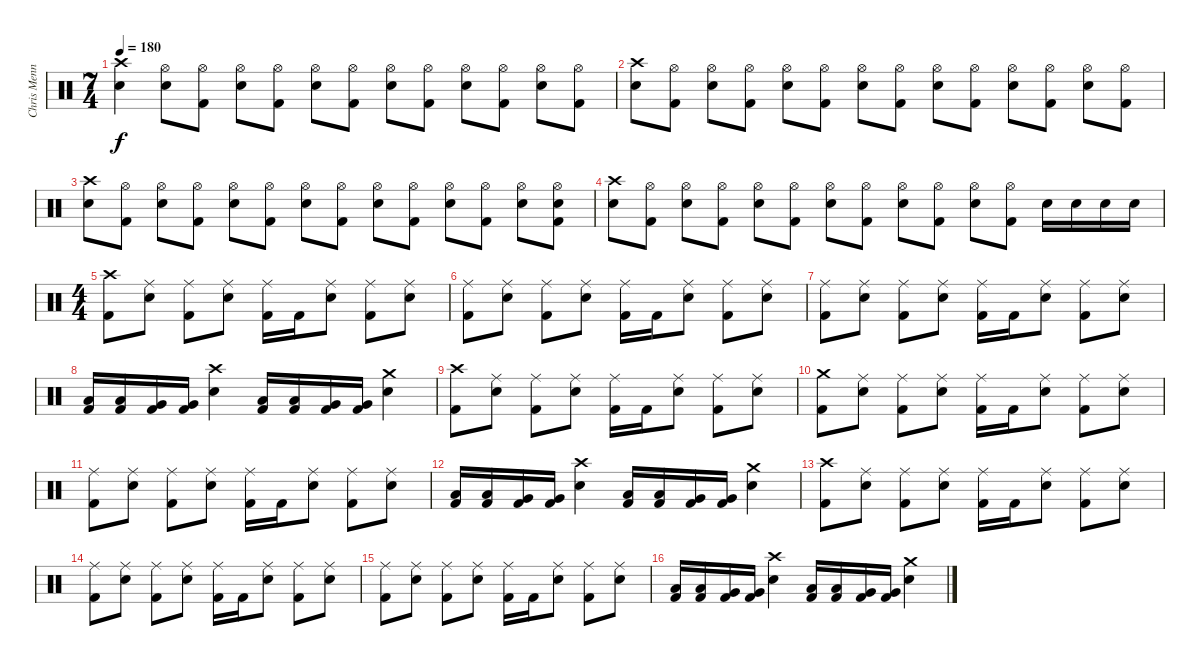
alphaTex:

\track ("Chris Menning" "Chris Menn") {instrument percussion}
\staff {score}
\articulation defaults
\ts (7 4)
\tempo 180
\clef neutral
\ks c
("Crash high (hit)" "Electric Snare (hit)").4{dy f} ("Hi-Hat (open)" "Electric Snare (hit)").8 ("Hi-Hat (open)" "Kick (hit) 2").8 ("Hi-Hat (open)" "Electric Snare (hit)").8 ("Hi-Hat (open)" "Kick (hit) 2").8 ("Hi-Hat (open)" "Electric Snare (hit)").8 ("Hi-Hat (open)" "Kick (hit) 2").8 ("Hi-Hat (open)" "Electric Snare (hit)").8 ("Hi-Hat (open)" "Kick (hit) 2").8 ("Hi-Hat (open)" "Electric Snare (hit)").8 ("Hi-Hat (open)" "Kick (hit) 2").8 ("Hi-Hat (open)" "Electric Snare (hit)").8 ("Hi-Hat (open)" "Kick (hit) 2").8 |
("Crash high (hit)" "Electric Snare (hit)").8 ("Hi-Hat (open)" "Kick (hit) 2").8 ("Hi-Hat (open)" "Electric Snare (hit)").8 ("Hi-Hat (open)" "Kick (hit) 2").8 ("Hi-Hat (open)" "Electric Snare (hit)").8 ("Hi-Hat (open)" "Kick (hit) 2").8 ("Hi-Hat (open)" "Electric Snare (hit)").8 ("Hi-Hat (open)" "Kick (hit) 2").8 ("Hi-Hat (open)" "Electric Snare (hit)").8 ("Hi-Hat (open)" "Kick (hit) 2").8 ("Hi-Hat (open)" "Electric Snare (hit)").8 ("Hi-Hat (open)" "Kick (hit) 2").8 ("Hi-Hat (open)" "Electric Snare (hit)").8 ("Hi-Hat (open)" "Kick (hit) 2").8 |
("Crash high (hit)" "Electric Snare (hit)").8 ("Hi-Hat (open)" "Kick (hit) 2").8 ("Hi-Hat (open)" "Electric Snare (hit)").8 ("Hi-Hat (open)" "Kick (hit) 2").8 ("Hi-Hat (open)" "Electric Snare (hit)").8 ("Hi-Hat (open)" "Kick (hit) 2").8 ("Hi-Hat (open)" "Electric Snare (hit)").8 ("Hi-Hat (open)" "Kick (hit) 2").8 ("Hi-Hat (open)" "Electric Snare (hit)").8 ("Hi-Hat (open)" "Kick (hit) 2").8 ("Hi-Hat (open)" "Electric Snare (hit)").8 ("Hi-Hat (open)" "Kick (hit) 2").8 ("Hi-Hat (open)" "Electric Snare (hit)").8 ("Hi-Hat (open)" "Electric Snare (hit)" "Kick (hit) 2").8 |
("Crash high (hit)" "Electric Snare (hit)").8 ("Hi-Hat (open)" "Kick (hit) 2").8 ("Hi-Hat (open)" "Electric Snare (hit)").8 ("Hi-Hat (open)" "Kick (hit) 2").8 ("Hi-Hat (open)" "Electric Snare (hit)").8 ("Hi-Hat (open)" "Kick (hit) 2").8 ("Hi-Hat (open)" "Electric Snare (hit)").8 ("Hi-Hat (open)" "Kick (hit) 2").8 ("Hi-Hat (open)" "Electric Snare (hit)").8 ("Hi-Hat (open)" "Kick (hit) 2").8 ("Hi-Hat (open)" "Electric Snare (hit)").8 ("Hi-Hat (open)" "Kick (hit) 2").8 "Electric Snare (hit)".16 "Electric Snare (hit)".16 "Electric Snare (hit)".16 "Electric Snare (hit)".16 |
\ts (4 4)
("Crash high (hit)" "Kick (hit) 2").8 ("Ride (middle)" "Electric Snare (hit)").8 ("Ride (middle)" "Kick (hit) 2").8 ("Ride (middle)" "Electric Snare (hit)").8 ("Ride (middle)" "Kick (hit) 2").16 "Kick (hit) 2".16 ("Ride (middle)" "Electric Snare (hit)").8 ("Ride (middle)" "Kick (hit) 2").8 ("Ride (middle)" "Electric Snare (hit)").8 |
("Ride (middle)" "Kick (hit) 2").8 ("Ride (middle)" "Electric Snare (hit)").8 ("Ride (middle)" "Kick (hit) 2").8 ("Ride (middle)" "Electric Snare (hit)").8 ("Ride (middle)" "Kick (hit) 2").16 "Kick (hit) 2".16 ("Ride (middle)" "Electric Snare (hit)").8 ("Ride (middle)" "Kick (hit) 2").8 ("Ride (middle)" "Electric Snare (hit)").8 |
("Ride (middle)" "Kick (hit) 2").8 ("Ride (middle)" "Electric Snare (hit)").8 ("Ride (middle)" "Kick (hit) 2").8 ("Ride (middle)" "Electric Snare (hit)").8 ("Ride (middle)" "Kick (hit) 2").16 "Kick (hit) 2".16 ("Ride (middle)" "Electric Snare (hit)").8 ("Ride (middle)" "Kick (hit) 2").8 ("Ride (middle)" "Electric Snare (hit)").8 |
("Low Tom (hit)" "Kick (hit) 2").16 ("Low Tom (hit)" "Kick (hit) 2").16 ("Very Low Tom (hit)" "Kick (hit) 2").16 ("Very Low Tom (hit)" "Kick (hit) 2").16 ("Crash high (hit)" "Electric Snare (hit)").4 ("Low Tom (hit)" "Kick (hit) 2").16 ("Low Tom (hit)" "Kick (hit) 2").16 ("Very Low Tom (hit)" "Kick (hit) 2").16 ("Very Low Tom (hit)" "Kick (hit) 2").16 ("Crash medium (hit)" "Electric Snare (hit)").4 |
("Crash high (hit)" "Kick (hit) 2").8 ("Ride (middle)" "Electric Snare (hit)").8 ("Ride (middle)" "Kick (hit) 2").8 ("Ride (middle)" "Electric Snare (hit)").8 ("Ride (middle)" "Kick (hit) 2").16 "Kick (hit) 2".16 ("Ride (middle)" "Electric Snare (hit)").8 ("Ride (middle)" "Kick (hit) 2").8 ("Ride (middle)" "Electric Snare (hit)").8 |
("Crash medium (hit)" "Kick (hit) 2").8 ("Ride (middle)" "Electric Snare (hit)").8 ("Ride (middle)" "Kick (hit) 2").8 ("Ride (middle)" "Electric Snare (hit)").8 ("Ride (middle)" "Kick (hit) 2").16 "Kick (hit) 2".16 ("Ride (middle)" "Electric Snare (hit)").8 ("Ride (middle)" "Kick (hit) 2").8 ("Ride (middle)" "Electric Snare (hit)").8 |
("Ride (middle)" "Kick (hit) 2").8 ("Ride (middle)" "Electric Snare (hit)").8 ("Ride (middle)" "Kick (hit) 2").8 ("Ride (middle)" "Electric Snare (hit)").8 ("Ride (middle)" "Kick (hit) 2").16 "Kick (hit) 2".16 ("Ride (middle)" "Electric Snare (hit)").8 ("Ride (middle)" "Kick (hit) 2").8 ("Ride (middle)" "Electric Snare (hit)").8 |
("Low Tom (hit)" "Kick (hit) 2").16 ("Low Tom (hit)" "Kick (hit) 2").16 ("Very Low Tom (hit)" "Kick (hit) 2").16 ("Very Low Tom (hit)" "Kick (hit) 2").16 ("Crash high (hit)" "Electric Snare (hit)").4 ("Low Tom (hit)" "Kick (hit) 2").16 ("Low Tom (hit)" "Kick (hit) 2").16 ("Very Low Tom (hit)" "Kick (hit) 2").16 ("Very Low Tom (hit)" "Kick (hit) 2").16 ("Crash medium (hit)" "Electric Snare (hit)").4 |
("Crash high (hit)" "Kick (hit) 2").8 ("Ride (middle)" "Electric Snare (hit)").8 ("Ride (middle)" "Kick (hit) 2").8 ("Ride (middle)" "Electric Snare (hit)").8 ("Ride (middle)" "Kick (hit) 2").16 "Kick (hit) 2".16 ("Ride (middle)" "Electric Snare (hit)").8 ("Ride (middle)" "Kick (hit) 2").8 ("Ride (middle)" "Electric Snare (hit)").8 |
("Ride (middle)" "Kick (hit) 2").8 ("Ride (middle)" "Electric Snare (hit)").8 ("Ride (middle)" "Kick (hit) 2").8 ("Ride (middle)" "Electric Snare (hit)").8 ("Ride (middle)" "Kick (hit) 2").16 "Kick (hit) 2".16 ("Ride (middle)" "Electric Snare (hit)").8 ("Ride (middle)" "Kick (hit) 2").8 ("Ride (middle)" "Electric Snare (hit)").8 |
("Ride (middle)" "Kick (hit) 2").8 ("Ride (middle)" "Electric Snare (hit)").8 ("Ride (middle)" "Kick (hit) 2").8 ("Ride (middle)" "Electric Snare (hit)").8 ("Ride (middle)" "Kick (hit) 2").16 "Kick (hit) 2".16 ("Ride (middle)" "Electric Snare (hit)").8 ("Ride (middle)" "Kick (hit) 2").8 ("Ride (middle)" "Electric Snare (hit)").8 |
("Low Tom (hit)" "Kick (hit) 2").16 ("Low Tom (hit)" "Kick (hit) 2").16 ("Very Low Tom (hit)" "Kick (hit) 2").16 ("Very Low Tom (hit)" "Kick (hit) 2").16 ("Crash high (hit)" "Electric Snare (hit)").4 ("Low Tom (hit)" "Kick (hit) 2").16 ("Low Tom (hit)" "Kick (hit) 2").16 ("Very Low Tom (hit)" "Kick (hit) 2").16 ("Very Low Tom (hit)" "Kick (hit) 2").16 ("Crash medium (hit)" "Electric Snare (hit)").4
